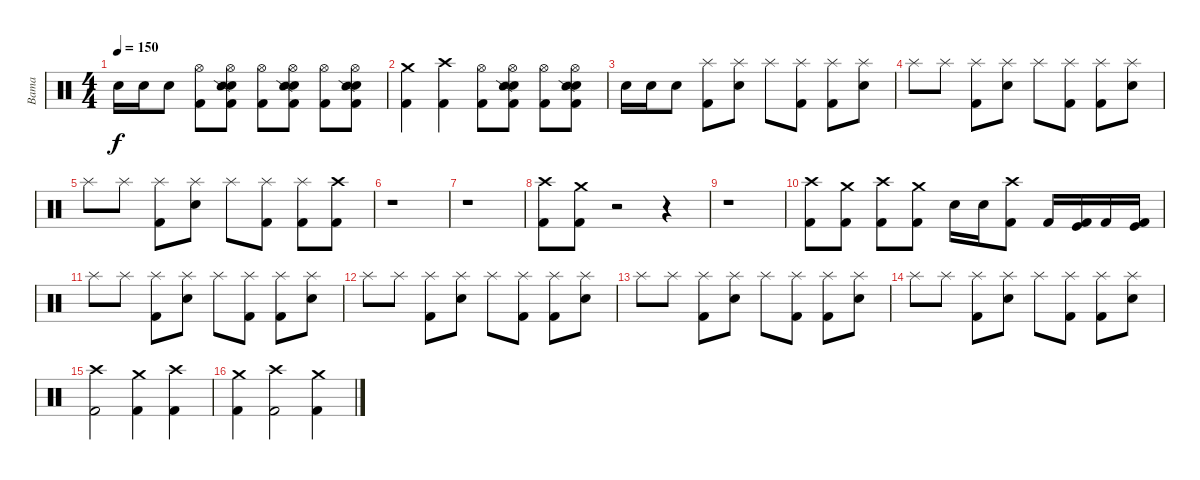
\track ("Bama" "Bama") {instrument percussion}
\staff {score}
\articulation defaults
\ts (4 4)
\tempo 150
\clef neutral
\ks c "Electric Snare (hit)".16{dy f} "Electric Snare (hit)".16 "Electric Snare (hit)".8
("Hi-Hat (open)" "Kick (hit) 2").8 ("Hi-Hat (open)" "Electric Snare (hit)" "Snare (side stick) 2" "Kick (hit) 2").8 ("Hi-Hat (open)" "Kick (hit) 2").8 ("Hi-Hat (open)" "Electric Snare (hit)" "Snare (side stick) 2" "Kick (hit) 2").8 ("Hi-Hat (open)" "Kick (hit) 2").8 ("Hi-Hat (open)" "Electric Snare (hit)" "Snare (side stick) 2" "Kick (hit) 2").8 |
("Crash medium (hit)" "Kick (hit) 2").4 ("Crash high (hit)" "Kick (hit) 2").4 ("Hi-Hat (open)" "Kick (hit) 2").8 ("Hi-Hat (open)" "Electric Snare (hit)" "Snare (side stick) 2" "Kick (hit) 2").8 ("Hi-Hat (open)" "Kick (hit) 2").8 ("Hi-Hat (open)" "Electric Snare (hit)" "Snare (side stick) 2" "Kick (hit) 2").8 |
"Electric Snare (hit)".16 "Electric Snare (hit)".16 "Electric Snare (hit)".8 ("Splash (hit)" "Kick (hit) 2").8 ("Splash (hit)" "Electric Snare (hit)").8 "Splash (hit)".8 ("Splash (hit)" "Kick (hit) 2").8 ("Splash (hit)" "Kick (hit) 2").8 ("Splash (hit)" "Electric Snare (hit)").8 |
"Splash (hit)".8 "Splash (hit)".8 ("Splash (hit)" "Kick (hit) 2").8 ("Splash (hit)" "Electric Snare (hit)").8 "Splash (hit)".8 ("Splash (hit)" "Kick (hit) 2").8 ("Splash (hit)" "Kick (hit) 2").8 ("Splash (hit)" "Electric Snare (hit)").8 |
"Splash (hit)".8 "Splash (hit)".8 ("Splash (hit)" "Kick (hit) 2").8 ("Splash (hit)" "Electric Snare (hit)").8 "Splash (hit)".8 ("Splash (hit)" "Kick (hit) 2").8 ("Splash (hit)" "Kick (hit) 2").8 ("Crash high (hit)" "Kick (hit) 2").8 |
r.1 |
r.1 |
("Crash high (hit)" "Kick (hit) 2").8 ("Crash medium (hit)" "Kick (hit) 2").8 r.2 r.4 |
r.1 |
("Crash high (hit)" "Kick (hit) 2").8 ("Crash medium (hit)" "Kick (hit) 2").8 ("Crash high (hit)" "Kick (hit) 2").8 ("Crash medium (hit)" "Kick (hit) 2").8 "Electric Snare (hit)".16 "Electric Snare (hit)".16 ("Crash high (hit)" "Kick (hit) 2").8 "Kick (hit) 2".16 ("Kick (hit)" "Kick (hit) 2").16 "Kick (hit) 2".16 ("Kick (hit)" "Kick (hit) 2").16 |
"Splash (hit)".8 "Splash (hit)".8 ("Splash (hit)" "Kick (hit) 2").8 ("Splash (hit)" "Electric Snare (hit)").8 "Splash (hit)".8 ("Splash (hit)" "Kick (hit) 2").8 ("Splash (hit)" "Kick (hit) 2").8 ("Splash (hit)" "Electric Snare (hit)").8 |
"Splash (hit)".8 "Splash (hit)".8 ("Splash (hit)" "Kick (hit) 2").8 ("Splash (hit)" "Electric Snare (hit)").8 "Splash (hit)".8 ("Splash (hit)" "Kick (hit) 2").8 ("Splash (hit)" "Kick (hit) 2").8 ("Splash (hit)" "Electric Snare (hit)").8 |
"Splash (hit)".8 "Splash (hit)".8 ("Splash (hit)" "Kick (hit) 2").8 ("Splash (hit)" "Electric Snare (hit)").8 "Splash (hit)".8 ("Splash (hit)" "Kick (hit) 2").8 ("Splash (hit)" "Kick (hit) 2").8 ("Splash (hit)" "Electric Snare (hit)").8 |
"Splash (hit)".8 "Splash (hit)".8 ("Splash (hit)" "Kick (hit) 2").8 ("Splash (hit)" "Electric Snare (hit)").8 "Splash (hit)".8 ("Splash (hit)" "Kick (hit) 2").8 ("Splash (hit)" "Kick (hit) 2").8 ("Splash (hit)" "Electric Snare (hit)").8 |
("Crash high (hit)" "Kick (hit) 2").2 ("Crash medium (hit)" "Kick (hit) 2").4 ("Crash high (hit)" "Kick (hit) 2").4 |
("Crash medium (hit)" "Kick (hit) 2").4 ("Crash high (hit)" "Kick (hit) 2").2 ("Crash medium (hit)" "Kick (hit) 2").4
